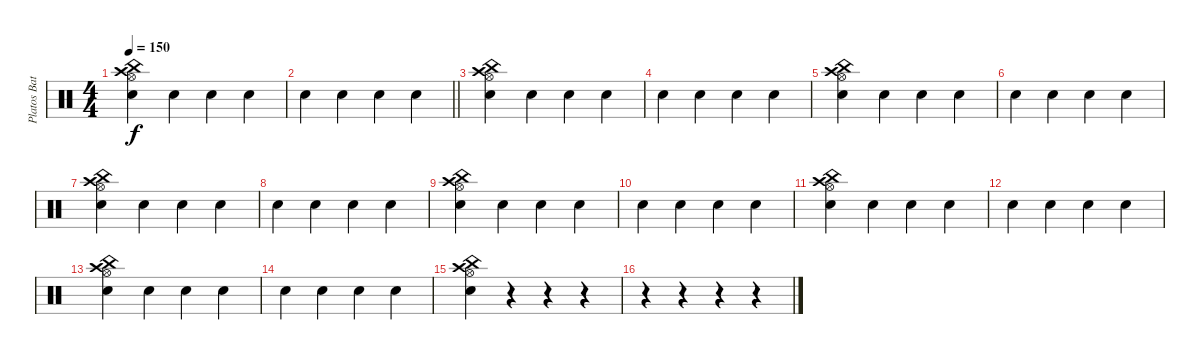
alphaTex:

\track ("Platos Batería" "Platos Bat") {instrument percussion}
\staff {score}
\articulation defaults
\ts (4 4)
\tempo 150
\clef neutral
\ks c
("Crash high (hit)" "China (hit)" "Hi-Hat (open)" "Hand Clap (hit)").4{dy f} "Hand Clap (hit)".4 "Hand Clap (hit)".4 "Hand Clap (hit)".4 |
\barLineRight lightlight "Hand Clap (hit)".4 "Hand Clap (hit)".4 "Hand Clap (hit)".4 "Hand Clap (hit)".4
|
("Crash high (hit)" "China (hit)" "Hi-Hat (open)" "Hand Clap (hit)").4 "Hand Clap (hit)".4 "Hand Clap (hit)".4 "Hand Clap (hit)".4 |
"Hand Clap (hit)".4 "Hand Clap (hit)".4 "Hand Clap (hit)".4 "Hand Clap (hit)".4 |
("Crash high (hit)" "China (hit)" "Hi-Hat (open)" "Hand Clap (hit)").4 "Hand Clap (hit)".4 "Hand Clap (hit)".4 "Hand Clap (hit)".4 |
"Hand Clap (hit)".4 "Hand Clap (hit)".4 "Hand Clap (hit)".4 "Hand Clap (hit)".4 |
("Crash high (hit)" "China (hit)" "Hi-Hat (open)" "Hand Clap (hit)").4 "Hand Clap (hit)".4 "Hand Clap (hit)".4 "Hand Clap (hit)".4 |
"Hand Clap (hit)".4 "Hand Clap (hit)".4 "Hand Clap (hit)".4 "Hand Clap (hit)".4 |
("Crash high (hit)" "China (hit)" "Hi-Hat (open)" "Hand Clap (hit)").4 "Hand Clap (hit)".4 "Hand Clap (hit)".4 "Hand Clap (hit)".4 |
"Hand Clap (hit)".4 "Hand Clap (hit)".4 "Hand Clap (hit)".4 "Hand Clap (hit)".4 |
("Crash high (hit)" "China (hit)" "Hi-Hat (open)" "Hand Clap (hit)").4 "Hand Clap (hit)".4 "Hand Clap (hit)".4 "Hand Clap (hit)".4 |
"Hand Clap (hit)".4 "Hand Clap (hit)".4 "Hand Clap (hit)".4 "Hand Clap (hit)".4 |
("Crash high (hit)" "China (hit)" "Hi-Hat (open)" "Hand Clap (hit)").4 "Hand Clap (hit)".4 "Hand Clap (hit)".4 "Hand Clap (hit)".4 |
"Hand Clap (hit)".4 "Hand Clap (hit)".4 "Hand Clap (hit)".4 "Hand Clap (hit)".4 |
("Crash high (hit)" "China (hit)" "Hi-Hat (open)" "Hand Clap (hit)").4 r.4 r.4 r.4 |
r.4 r.4 r.4 r.4
